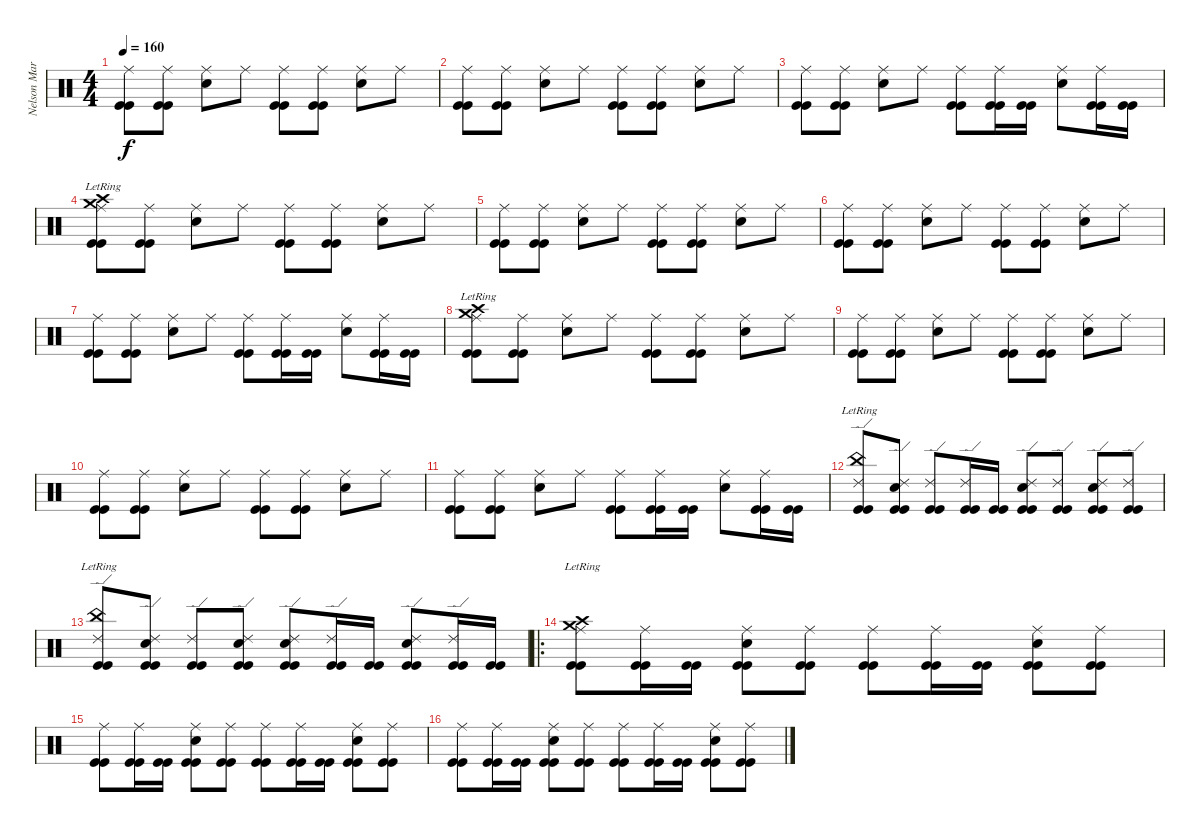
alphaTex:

\track ("Nelson Maria" "Nelson Mar") {instrument percussion}
\staff {score}
\articulation defaults
\ts (4 4)
\tempo 160
\clef neutral
\ks c
("Ride (middle)" "Kick (hit)" "Kick (hit)").8{dy f} ("Ride (middle)" "Kick (hit)" "Kick (hit)").8 ("Snare (hit) 2" "Ride (middle)").8 "Ride (middle)".8 ("Ride (middle)" "Kick (hit)" "Kick (hit)").8 ("Ride (middle)" "Kick (hit)" "Kick (hit)").8 ("Snare (hit) 2" "Ride (middle)").8 "Ride (middle)".8 |
("Ride (middle)" "Kick (hit)" "Kick (hit)").8 ("Ride (middle)" "Kick (hit)" "Kick (hit)").8 ("Snare (hit) 2" "Ride (middle)").8 "Ride (middle)".8 ("Ride (middle)" "Kick (hit)" "Kick (hit)").8 ("Ride (middle)" "Kick (hit)" "Kick (hit)").8 ("Snare (hit) 2" "Ride (middle)").8 "Ride (middle)".8 |
("Ride (middle)" "Kick (hit)" "Kick (hit)").8 ("Ride (middle)" "Kick (hit)" "Kick (hit)").8 ("Snare (hit) 2" "Ride (middle)").8 "Ride (middle)".8 ("Ride (middle)" "Kick (hit)" "Kick (hit)").8 ("Ride (middle)" "Kick (hit)" "Kick (hit)").16 ("Kick (hit)" "Kick (hit)").16 ("Snare (hit) 2" "Ride (middle)").8 ("Ride (middle)" "Kick (hit)" "Kick (hit)").16 ("Kick (hit)" "Kick (hit)").16 |
("Crash high (hit)"{lr} "Crash medium (hit)"{lr} "Ride (middle)" "Kick (hit)" "Kick (hit)").8 ("Ride (middle)" "Kick (hit)" "Kick (hit)").8 ("Snare (hit) 2" "Ride (middle)").8 "Ride (middle)".8 ("Ride (middle)" "Kick (hit)" "Kick (hit)").8 ("Ride (middle)" "Kick (hit)" "Kick (hit)").8 ("Snare (hit) 2" "Ride (middle)").8 "Ride (middle)".8 |
("Ride (middle)" "Kick (hit)" "Kick (hit)").8 ("Ride (middle)" "Kick (hit)" "Kick (hit)").8 ("Snare (hit) 2" "Ride (middle)").8 "Ride (middle)".8 ("Ride (middle)" "Kick (hit)" "Kick (hit)").8 ("Ride (middle)" "Kick (hit)" "Kick (hit)").8 ("Snare (hit) 2" "Ride (middle)").8 "Ride (middle)".8 |
("Ride (middle)" "Kick (hit)" "Kick (hit)").8 ("Ride (middle)" "Kick (hit)" "Kick (hit)").8 ("Snare (hit) 2" "Ride (middle)").8 "Ride (middle)".8 ("Ride (middle)" "Kick (hit)" "Kick (hit)").8 ("Ride (middle)" "Kick (hit)" "Kick (hit)").8 ("Snare (hit) 2" "Ride (middle)").8 "Ride (middle)".8 |
("Ride (middle)" "Kick (hit)" "Kick (hit)").8 ("Ride (middle)" "Kick (hit)" "Kick (hit)").8 ("Snare (hit) 2" "Ride (middle)").8 "Ride (middle)".8 ("Ride (middle)" "Kick (hit)" "Kick (hit)").8 ("Ride (middle)" "Kick (hit)" "Kick (hit)").16 ("Kick (hit)" "Kick (hit)").16 ("Snare (hit) 2" "Ride (middle)").8 ("Ride (middle)" "Kick (hit)" "Kick (hit)").16 ("Kick (hit)" "Kick (hit)").16 |
("Crash high (hit)"{lr} "Crash medium (hit)"{lr} "Ride (middle)" "Kick (hit)" "Kick (hit)").8 ("Ride (middle)" "Kick (hit)" "Kick (hit)").8 ("Snare (hit) 2" "Ride (middle)").8 "Ride (middle)".8 ("Ride (middle)" "Kick (hit)" "Kick (hit)").8 ("Ride (middle)" "Kick (hit)" "Kick (hit)").8 ("Snare (hit) 2" "Ride (middle)").8 "Ride (middle)".8 |
("Ride (middle)" "Kick (hit)" "Kick (hit)").8 ("Ride (middle)" "Kick (hit)" "Kick (hit)").8 ("Snare (hit) 2" "Ride (middle)").8 "Ride (middle)".8 ("Ride (middle)" "Kick (hit)" "Kick (hit)").8 ("Ride (middle)" "Kick (hit)" "Kick (hit)").8 ("Snare (hit) 2" "Ride (middle)").8 "Ride (middle)".8 |
("Ride (middle)" "Kick (hit)" "Kick (hit)").8 ("Ride (middle)" "Kick (hit)" "Kick (hit)").8 ("Snare (hit) 2" "Ride (middle)").8 "Ride (middle)".8 ("Ride (middle)" "Kick (hit)" "Kick (hit)").8 ("Ride (middle)" "Kick (hit)" "Kick (hit)").8 ("Snare (hit) 2" "Ride (middle)").8 "Ride (middle)".8 |
("Ride (middle)" "Kick (hit)" "Kick (hit)").8 ("Ride (middle)" "Kick (hit)" "Kick (hit)").8 ("Snare (hit) 2" "Ride (middle)").8 "Ride (middle)".8 ("Ride (middle)" "Kick (hit)" "Kick (hit)").8 ("Ride (middle)" "Kick (hit)" "Kick (hit)").16 ("Kick (hit)" "Kick (hit)").16 ("Snare (hit) 2" "Ride (middle)").8 ("Ride (middle)" "Kick (hit)" "Kick (hit)").16 ("Kick (hit)" "Kick (hit)").16 |
("China (hit)"{lr} "Ride (edge) 2" "Kick (hit)" "Kick (hit)").8 ("Snare (hit) 2" "Ride (edge) 2" "Kick (hit)" "Kick (hit)").8 ("Ride (edge) 2" "Kick (hit)" "Kick (hit)").8 ("Ride (edge) 2" "Kick (hit)" "Kick (hit)").16 ("Kick (hit)" "Kick (hit)").16 ("Snare (hit) 2" "Ride (edge) 2" "Kick (hit)" "Kick (hit)").8 ("Ride (edge) 2" "Kick (hit)" "Kick (hit)").8 ("Snare (hit) 2" "Ride (edge) 2" "Kick (hit)" "Kick (hit)").8 ("Ride (edge) 2" "Kick (hit)" "Kick (hit)").8 |
("China (hit)"{lr} "Ride (edge) 2" "Kick (hit)" "Kick (hit)").8 ("Snare (hit) 2" "Ride (edge) 2" "Kick (hit)" "Kick (hit)").8 ("Ride (edge) 2" "Kick (hit)" "Kick (hit)").8 ("Snare (hit) 2" "Ride (edge) 2" "Kick (hit)" "Kick (hit)").8 ("Snare (hit) 2" "Ride (edge) 2" "Kick (hit)" "Kick (hit)").8 ("Ride (edge) 2" "Kick (hit)" "Kick (hit)").16 ("Kick (hit)" "Kick (hit)").16 ("Snare (hit) 2" "Ride (edge) 2" "Kick (hit)" "Kick (hit)").8 ("Ride (edge) 2" "Kick (hit)" "Kick (hit)").16 ("Kick (hit)" "Kick (hit)").16 |
\ro
("Crash high (hit)"{lr} "Crash medium (hit)"{lr} "Ride (middle)" "Kick (hit)" "Kick (hit)").8 ("Ride (middle)" "Kick (hit)" "Kick (hit)").16 ("Kick (hit)" "Kick (hit)").16 ("Snare (hit) 2" "Ride (middle)" "Kick (hit)" "Kick (hit)").8 ("Ride (middle)" "Kick (hit)" "Kick (hit)").8 ("Ride (middle)" "Kick (hit)" "Kick (hit)").8 ("Ride (middle)" "Kick (hit)" "Kick (hit)").16 ("Kick (hit)" "Kick (hit)").16 ("Snare (hit) 2" "Ride (middle)" "Kick (hit)" "Kick (hit)").8 ("Ride (middle)" "Kick (hit)" "Kick (hit)").8 |
("Ride (middle)" "Kick (hit)" "Kick (hit)").8 ("Ride (middle)" "Kick (hit)" "Kick (hit)").16 ("Kick (hit)" "Kick (hit)").16 ("Snare (hit) 2" "Ride (middle)" "Kick (hit)" "Kick (hit)").8 ("Ride (middle)" "Kick (hit)" "Kick (hit)").8 ("Ride (middle)" "Kick (hit)" "Kick (hit)").8 ("Ride (middle)" "Kick (hit)" "Kick (hit)").16 ("Kick (hit)" "Kick (hit)").16 ("Snare (hit) 2" "Ride (middle)" "Kick (hit)" "Kick (hit)").8 ("Ride (middle)" "Kick (hit)" "Kick (hit)").8 |
("Ride (middle)" "Kick (hit)" "Kick (hit)").8 ("Ride (middle)" "Kick (hit)" "Kick (hit)").16 ("Kick (hit)" "Kick (hit)").16 ("Snare (hit) 2" "Ride (middle)" "Kick (hit)" "Kick (hit)").8 ("Ride (middle)" "Kick (hit)" "Kick (hit)").8 ("Ride (middle)" "Kick (hit)" "Kick (hit)").8 ("Ride (middle)" "Kick (hit)" "Kick (hit)").16 ("Kick (hit)" "Kick (hit)").16 ("Snare (hit) 2" "Ride (middle)" "Kick (hit)" "Kick (hit)").8 ("Ride (middle)" "Kick (hit)" "Kick (hit)").8
